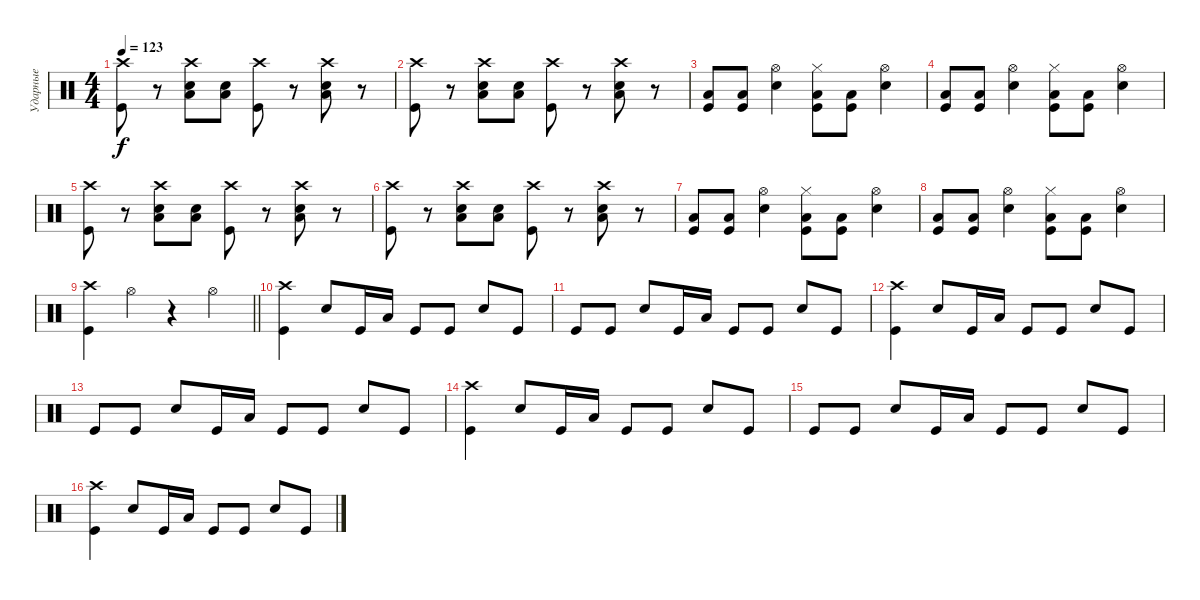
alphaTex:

\track ("Ударные" "Ударные") {instrument percussion}
\staff {score}
\articulation defaults
\ts (4 4)
\tempo 123
\clef neutral
\ks c
("Crash high (hit)" "Kick (hit)").8{dy f} r.8 ("Crash high (hit)" "Electric Snare (hit)" "Low Tom (hit)").8 ("Electric Snare (hit)" "Low Tom (hit)").8 ("Crash high (hit)" "Kick (hit)").8 r.8 ("Crash high (hit)" "Electric Snare (hit)" "Low Tom (hit)").8 r.8 |
("Crash high (hit)" "Kick (hit)").8 r.8 ("Crash high (hit)" "Electric Snare (hit)" "Low Tom (hit)").8 ("Electric Snare (hit)" "Low Tom (hit)").8 ("Crash high (hit)" "Kick (hit)").8 r.8 ("Crash high (hit)" "Electric Snare (hit)" "Low Tom (hit)").8 r.8 |
("Low Tom (hit)" "Kick (hit)").8 ("Low Tom (hit)" "Kick (hit)").8 ("Hi-Hat (open)" "Snare (hit) 2").4 ("Hi-Hat (closed)" "Low Tom (hit)" "Kick (hit)").8 ("Low Tom (hit)" "Kick (hit)").8 ("Hi-Hat (open)" "Snare (hit) 2").4 |
("Low Tom (hit)" "Kick (hit)").8 ("Low Tom (hit)" "Kick (hit)").8 ("Hi-Hat (open)" "Snare (hit) 2").4 ("Hi-Hat (closed)" "Low Tom (hit)" "Kick (hit)").8 ("Low Tom (hit)" "Kick (hit)").8 ("Hi-Hat (open)" "Snare (hit) 2").4 |
("Crash high (hit)" "Kick (hit)").8 r.8 ("Crash high (hit)" "Electric Snare (hit)" "Low Tom (hit)").8 ("Electric Snare (hit)" "Low Tom (hit)").8 ("Crash high (hit)" "Kick (hit)").8 r.8 ("Crash high (hit)" "Electric Snare (hit)" "Low Tom (hit)").8 r.8 |
("Crash high (hit)" "Kick (hit)").8 r.8 ("Crash high (hit)" "Electric Snare (hit)" "Low Tom (hit)").8 ("Electric Snare (hit)" "Low Tom (hit)").8 ("Crash high (hit)" "Kick (hit)").8 r.8 ("Crash high (hit)" "Electric Snare (hit)" "Low Tom (hit)").8 r.8 |
("Low Tom (hit)" "Kick (hit)").8 ("Low Tom (hit)" "Kick (hit)").8 ("Hi-Hat (open)" "Snare (hit) 2").4 ("Hi-Hat (closed)" "Low Tom (hit)" "Kick (hit)").8 ("Low Tom (hit)" "Kick (hit)").8 ("Hi-Hat (open)" "Snare (hit) 2").4 |
("Low Tom (hit)" "Kick (hit)").8 ("Low Tom (hit)" "Kick (hit)").8 ("Hi-Hat (open)" "Snare (hit) 2").4 ("Hi-Hat (closed)" "Low Tom (hit)" "Kick (hit)").8 ("Low Tom (hit)" "Kick (hit)").8 ("Hi-Hat (open)" "Snare (hit) 2").4 |
\barLineRight lightlight
("Crash high (hit)" "Kick (hit)").4 "Hi-Hat (open)".4 r.4 "Hi-Hat (open)".4 |
("Crash high (hit)" "Kick (hit)").4 "Electric Snare (hit)".8 "Kick (hit)".16 "Low Tom (hit)".16 "Kick (hit)".8 "Kick (hit)".8 "Electric Snare (hit)".8 "Kick (hit)".8 |
"Kick (hit)".8 "Kick (hit)".8 "Electric Snare (hit)".8 "Kick (hit)".16 "Low Tom (hit)".16 "Kick (hit)".8 "Kick (hit)".8 "Electric Snare (hit)".8 "Kick (hit)".8 |
("Crash high (hit)" "Kick (hit)").4 "Electric Snare (hit)".8 "Kick (hit)".16 "Low Tom (hit)".16 "Kick (hit)".8 "Kick (hit)".8 "Electric Snare (hit)".8 "Kick (hit)".8 |
"Kick (hit)".8 "Kick (hit)".8 "Electric Snare (hit)".8 "Kick (hit)".16 "Low Tom (hit)".16 "Kick (hit)".8 "Kick (hit)".8 "Electric Snare (hit)".8 "Kick (hit)".8 |
("Crash high (hit)" "Kick (hit)").4 "Electric Snare (hit)".8 "Kick (hit)".16 "Low Tom (hit)".16 "Kick (hit)".8 "Kick (hit)".8 "Electric Snare (hit)".8 "Kick (hit)".8 |
"Kick (hit)".8 "Kick (hit)".8 "Electric Snare (hit)".8 "Kick (hit)".16 "Low Tom (hit)".16 "Kick (hit)".8 "Kick (hit)".8 "Electric Snare (hit)".8 "Kick (hit)".8 |
("Crash high (hit)" "Kick (hit)").4 "Electric Snare (hit)".8 "Kick (hit)".16 "Low Tom (hit)".16 "Kick (hit)".8 "Kick (hit)".8 "Electric Snare (hit)".8 "Kick (hit)".8
